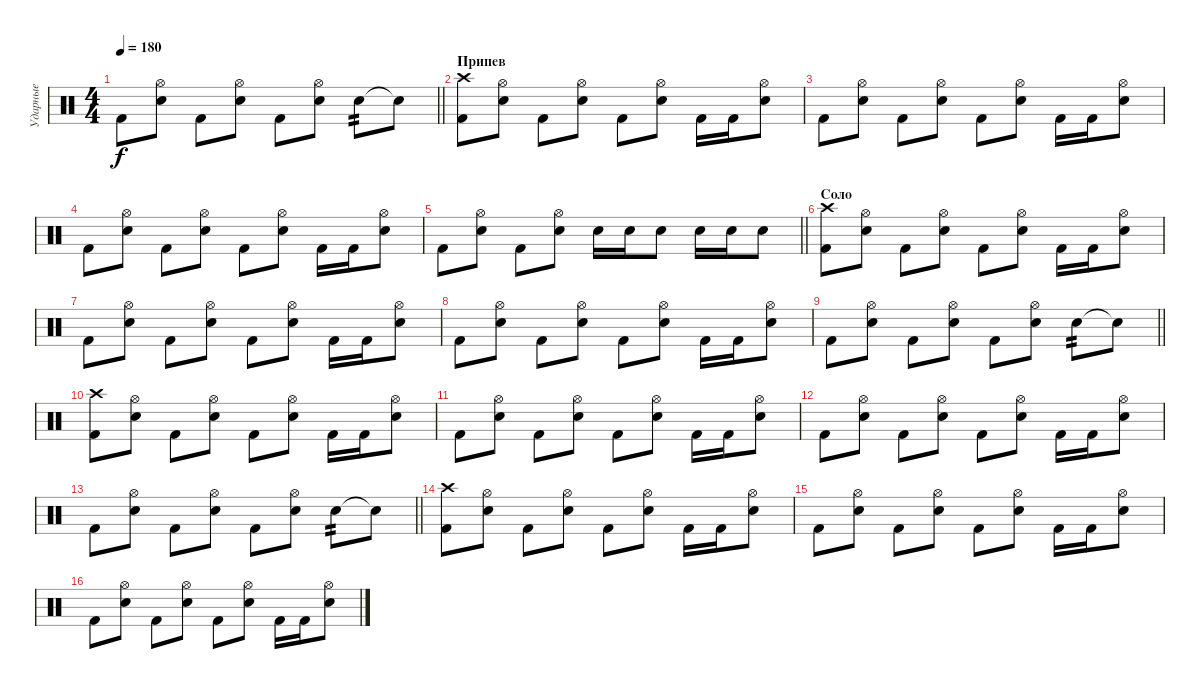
\track ("Ударные" "Ударные") {instrument percussion}
\staff {score}
\articulation defaults
\ts (4 4)
\tempo 180
\clef neutral
\barLineRight lightlight
\ks c "Kick (hit) 2".8{dy f}
("Hi-Hat (open)" "Electric Snare (hit)").8 "Kick (hit) 2".8 ("Hi-Hat (open)" "Electric Snare (hit)").8 "Kick (hit) 2".8 ("Hi-Hat (open)" "Electric Snare (hit)").8 "Electric Snare (hit)".8{tp 2} "Electric Snare (hit)"{t}.8 |
\section ("" "Припев")
("Crash high (hit)" "Kick (hit) 2").8 ("Hi-Hat (open)" "Electric Snare (hit)").8 "Kick (hit) 2".8 ("Hi-Hat (open)" "Electric Snare (hit)").8 "Kick (hit) 2".8 ("Hi-Hat (open)" "Electric Snare (hit)").8 "Kick (hit) 2".16 "Kick (hit) 2".16 ("Hi-Hat (open)" "Electric Snare (hit)").8 |
"Kick (hit) 2".8 ("Hi-Hat (open)" "Electric Snare (hit)").8 "Kick (hit) 2".8 ("Hi-Hat (open)" "Electric Snare (hit)").8 "Kick (hit) 2".8 ("Hi-Hat (open)" "Electric Snare (hit)").8 "Kick (hit) 2".16 "Kick (hit) 2".16 ("Hi-Hat (open)" "Electric Snare (hit)").8 |
"Kick (hit) 2".8 ("Hi-Hat (open)" "Electric Snare (hit)").8 "Kick (hit) 2".8 ("Hi-Hat (open)" "Electric Snare (hit)").8 "Kick (hit) 2".8 ("Hi-Hat (open)" "Electric Snare (hit)").8 "Kick (hit) 2".16 "Kick (hit) 2".16 ("Hi-Hat (open)" "Electric Snare (hit)").8 |
\barLineRight lightlight "Kick (hit) 2".8
("Hi-Hat (open)" "Electric Snare (hit)").8 "Kick (hit) 2".8 ("Hi-Hat (open)" "Electric Snare (hit)").8 "Electric Snare (hit)".16 "Electric Snare (hit)".16 "Electric Snare (hit)".8 "Electric Snare (hit)".16 "Electric Snare (hit)".16 "Electric Snare (hit)".8 |
\section ("" "Соло")
("Crash high (hit)" "Kick (hit) 2").8 ("Hi-Hat (open)" "Electric Snare (hit)").8 "Kick (hit) 2".8 ("Hi-Hat (open)" "Electric Snare (hit)").8 "Kick (hit) 2".8 ("Hi-Hat (open)" "Electric Snare (hit)").8 "Kick (hit) 2".16 "Kick (hit) 2".16 ("Hi-Hat (open)" "Electric Snare (hit)").8 |
"Kick (hit) 2".8 ("Hi-Hat (open)" "Electric Snare (hit)").8 "Kick (hit) 2".8 ("Hi-Hat (open)" "Electric Snare (hit)").8 "Kick (hit) 2".8 ("Hi-Hat (open)" "Electric Snare (hit)").8 "Kick (hit) 2".16 "Kick (hit) 2".16 ("Hi-Hat (open)" "Electric Snare (hit)").8 |
"Kick (hit) 2".8 ("Hi-Hat (open)" "Electric Snare (hit)").8 "Kick (hit) 2".8 ("Hi-Hat (open)" "Electric Snare (hit)").8 "Kick (hit) 2".8 ("Hi-Hat (open)" "Electric Snare (hit)").8 "Kick (hit) 2".16 "Kick (hit) 2".16 ("Hi-Hat (open)" "Electric Snare (hit)").8 |
\barLineRight lightlight "Kick (hit) 2".8
("Hi-Hat (open)" "Electric Snare (hit)").8 "Kick (hit) 2".8 ("Hi-Hat (open)" "Electric Snare (hit)").8 "Kick (hit) 2".8 ("Hi-Hat (open)" "Electric Snare (hit)").8 "Electric Snare (hit)".8{tp 2} "Snare (hit)"{t}.8 |
("Crash high (hit)" "Kick (hit) 2").8 ("Hi-Hat (open)" "Electric Snare (hit)").8 "Kick (hit) 2".8 ("Hi-Hat (open)" "Electric Snare (hit)").8 "Kick (hit) 2".8 ("Hi-Hat (open)" "Electric Snare (hit)").8 "Kick (hit) 2".16 "Kick (hit) 2".16 ("Hi-Hat (open)" "Electric Snare (hit)").8 |
"Kick (hit) 2".8 ("Hi-Hat (open)" "Electric Snare (hit)").8 "Kick (hit) 2".8 ("Hi-Hat (open)" "Electric Snare (hit)").8 "Kick (hit) 2".8 ("Hi-Hat (open)" "Electric Snare (hit)").8 "Kick (hit) 2".16 "Kick (hit) 2".16 ("Hi-Hat (open)" "Electric Snare (hit)").8 |
"Kick (hit) 2".8 ("Hi-Hat (open)" "Electric Snare (hit)").8 "Kick (hit) 2".8 ("Hi-Hat (open)" "Electric Snare (hit)").8 "Kick (hit) 2".8 ("Hi-Hat (open)" "Electric Snare (hit)").8 "Kick (hit) 2".16 "Kick (hit) 2".16 ("Hi-Hat (open)" "Electric Snare (hit)").8 |
\barLineRight lightlight "Kick (hit) 2".8
("Hi-Hat (open)" "Electric Snare (hit)").8 "Kick (hit) 2".8 ("Hi-Hat (open)" "Electric Snare (hit)").8 "Kick (hit) 2".8 ("Hi-Hat (open)" "Electric Snare (hit)").8 "Electric Snare (hit)".8{tp 2} "Snare (hit)"{t}.8 |
("Crash high (hit)" "Kick (hit) 2").8 ("Hi-Hat (open)" "Electric Snare (hit)").8 "Kick (hit) 2".8 ("Hi-Hat (open)" "Electric Snare (hit)").8 "Kick (hit) 2".8 ("Hi-Hat (open)" "Electric Snare (hit)").8 "Kick (hit) 2".16 "Kick (hit) 2".16 ("Hi-Hat (open)" "Electric Snare (hit)").8 |
"Kick (hit) 2".8 ("Hi-Hat (open)" "Electric Snare (hit)").8 "Kick (hit) 2".8 ("Hi-Hat (open)" "Electric Snare (hit)").8 "Kick (hit) 2".8 ("Hi-Hat (open)" "Electric Snare (hit)").8 "Kick (hit) 2".16 "Kick (hit) 2".16 ("Hi-Hat (open)" "Electric Snare (hit)").8 |
"Kick (hit) 2".8 ("Hi-Hat (open)" "Electric Snare (hit)").8 "Kick (hit) 2".8 ("Hi-Hat (open)" "Electric Snare (hit)").8 "Kick (hit) 2".8 ("Hi-Hat (open)" "Electric Snare (hit)").8 "Kick (hit) 2".16 "Kick (hit) 2".16 ("Hi-Hat (open)" "Electric Snare (hit)").8
